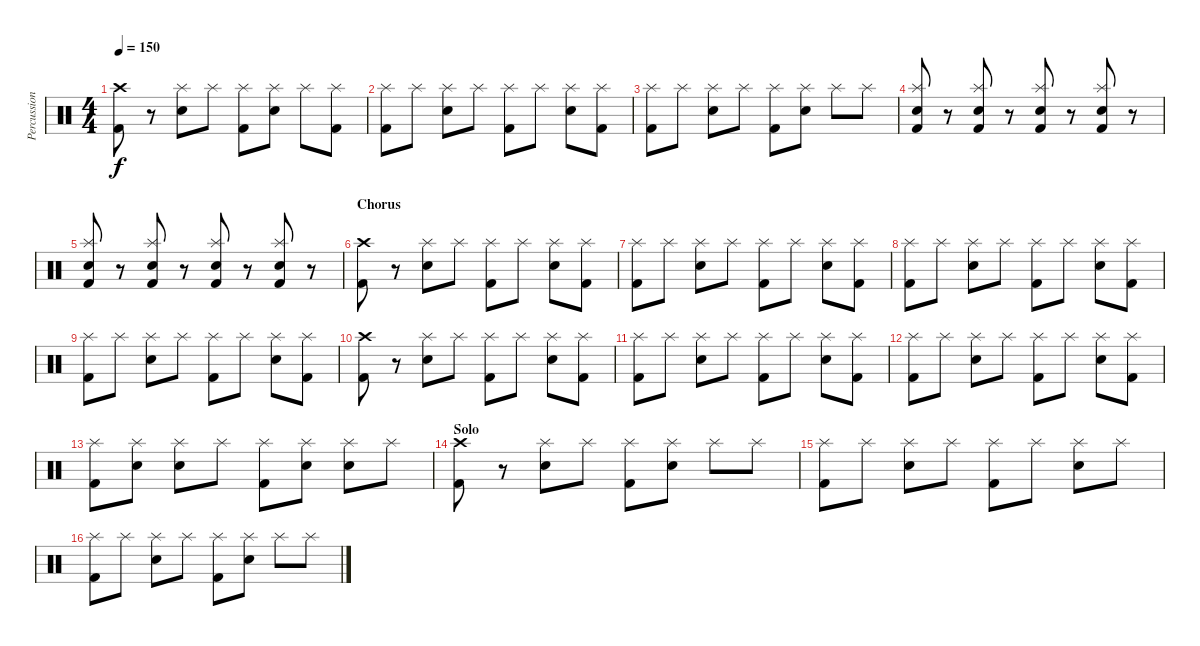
\track ("Percussion" "Percussion") {instrument percussion}
\staff {score}
\articulation defaults
\ts (4 4)
\tempo 150
\clef neutral
\ks c
("Crash high (hit)" "Kick (hit) 2").8{dy f} r.8 ("Splash (hit)" "Electric Snare (hit)").8 "Splash (hit)".8 ("Splash (hit)" "Kick (hit) 2").8 ("Splash (hit)" "Electric Snare (hit)").8 "Splash (hit)".8 ("Splash (hit)" "Kick (hit) 2").8 |
("Splash (hit)" "Kick (hit) 2").8 "Splash (hit)".8 ("Splash (hit)" "Electric Snare (hit)").8 "Splash (hit)".8 ("Splash (hit)" "Kick (hit) 2").8 "Splash (hit)".8 ("Splash (hit)" "Electric Snare (hit)").8 ("Splash (hit)" "Kick (hit) 2").8 |
("Splash (hit)" "Kick (hit) 2").8 "Splash (hit)".8 ("Splash (hit)" "Electric Snare (hit)").8 "Splash (hit)".8 ("Splash (hit)" "Kick (hit) 2").8 ("Splash (hit)" "Electric Snare (hit)").8 "Splash (hit)".8 "Splash (hit)".8 |
("Splash (hit)" "Electric Snare (hit)" "Kick (hit) 2").8 r.8 ("Splash (hit)" "Electric Snare (hit)" "Kick (hit) 2").8 r.8 ("Splash (hit)" "Electric Snare (hit)" "Kick (hit) 2").8 r.8 ("Splash (hit)" "Electric Snare (hit)" "Kick (hit) 2").8 r.8 |
("Splash (hit)" "Electric Snare (hit)" "Kick (hit) 2").8 r.8 ("Splash (hit)" "Electric Snare (hit)" "Kick (hit) 2").8 r.8 ("Splash (hit)" "Electric Snare (hit)" "Kick (hit) 2").8 r.8 ("Splash (hit)" "Electric Snare (hit)" "Kick (hit) 2").8 r.8 |
\section ("" "Chorus")
("Crash high (hit)" "Kick (hit) 2").8 r.8 ("Splash (hit)" "Electric Snare (hit)").8 "Splash (hit)".8 ("Splash (hit)" "Kick (hit) 2").8 "Splash (hit)".8 ("Splash (hit)" "Electric Snare (hit)").8 ("Splash (hit)" "Kick (hit) 2").8 |
("Splash (hit)" "Kick (hit) 2").8 "Splash (hit)".8 ("Splash (hit)" "Electric Snare (hit)").8 "Splash (hit)".8 ("Splash (hit)" "Kick (hit) 2").8 "Splash (hit)".8 ("Splash (hit)" "Electric Snare (hit)").8 ("Splash (hit)" "Kick (hit) 2").8 |
("Splash (hit)" "Kick (hit) 2").8 "Splash (hit)".8 ("Splash (hit)" "Electric Snare (hit)").8 "Splash (hit)".8 ("Splash (hit)" "Kick (hit) 2").8 "Splash (hit)".8 ("Splash (hit)" "Electric Snare (hit)").8 ("Splash (hit)" "Kick (hit) 2").8 |
("Splash (hit)" "Kick (hit) 2").8 "Splash (hit)".8 ("Splash (hit)" "Electric Snare (hit)").8 "Splash (hit)".8 ("Splash (hit)" "Kick (hit) 2").8 "Splash (hit)".8 ("Splash (hit)" "Electric Snare (hit)").8 ("Splash (hit)" "Kick (hit) 2").8 |
("Crash high (hit)" "Kick (hit) 2").8 r.8 ("Splash (hit)" "Electric Snare (hit)").8 "Splash (hit)".8 ("Splash (hit)" "Kick (hit) 2").8 "Splash (hit)".8 ("Splash (hit)" "Electric Snare (hit)").8 ("Splash (hit)" "Kick (hit) 2").8 |
("Splash (hit)" "Kick (hit) 2").8 "Splash (hit)".8 ("Splash (hit)" "Electric Snare (hit)").8 "Splash (hit)".8 ("Splash (hit)" "Kick (hit) 2").8 "Splash (hit)".8 ("Splash (hit)" "Electric Snare (hit)").8 ("Splash (hit)" "Kick (hit) 2").8 |
("Splash (hit)" "Kick (hit) 2").8 "Splash (hit)".8 ("Splash (hit)" "Electric Snare (hit)").8 "Splash (hit)".8 ("Splash (hit)" "Kick (hit) 2").8 "Splash (hit)".8 ("Splash (hit)" "Electric Snare (hit)").8 ("Splash (hit)" "Kick (hit) 2").8 |
("Splash (hit)" "Kick (hit) 2").8 ("Splash (hit)" "Electric Snare (hit)").8 ("Splash (hit)" "Electric Snare (hit)").8 "Splash (hit)".8 ("Splash (hit)" "Kick (hit) 2").8 ("Splash (hit)" "Electric Snare (hit)").8 ("Splash (hit)" "Electric Snare (hit)").8 "Splash (hit)".8 |
\section ("" "Solo")
("Crash high (hit)" "Kick (hit) 2").8 r.8 ("Splash (hit)" "Electric Snare (hit)").8 "Splash (hit)".8 ("Splash (hit)" "Kick (hit) 2").8 ("Splash (hit)" "Electric Snare (hit)").8 "Splash (hit)".8 "Splash (hit)".8 |
("Splash (hit)" "Kick (hit) 2").8 "Splash (hit)".8 ("Splash (hit)" "Electric Snare (hit)").8 "Splash (hit)".8 ("Splash (hit)" "Kick (hit) 2").8 "Splash (hit)".8 ("Splash (hit)" "Electric Snare (hit)").8 "Splash (hit)".8 |
("Splash (hit)" "Kick (hit) 2").8 "Splash (hit)".8 ("Splash (hit)" "Electric Snare (hit)").8 "Splash (hit)".8 ("Splash (hit)" "Kick (hit) 2").8 ("Splash (hit)" "Electric Snare (hit)").8 "Splash (hit)".8 "Splash (hit)".8
